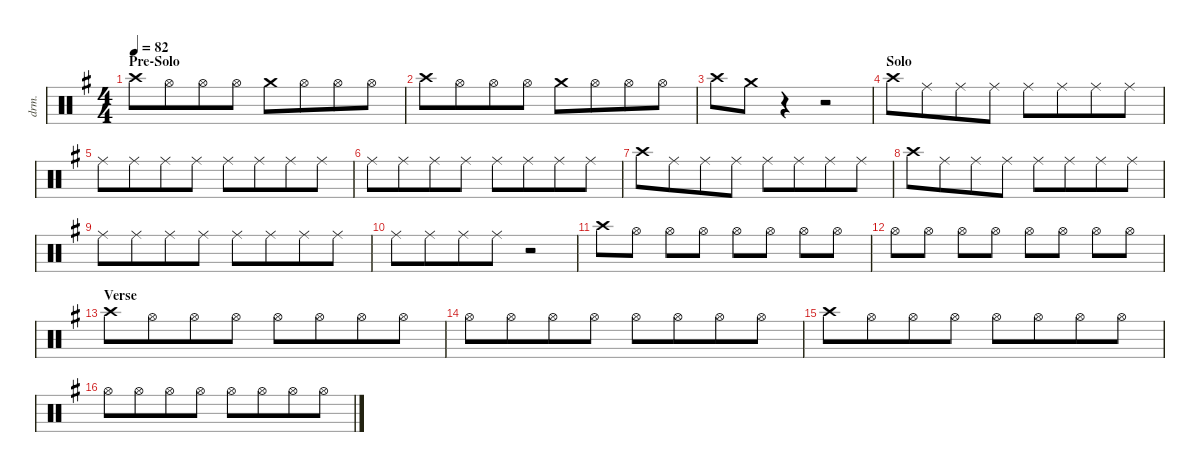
\defaultSystemsLayout 2
\hideDynamics
\bracketExtendMode nobrackets
\otherSystemsTrackNameOrientation horizontal
\track ("Drums (Cymbals)" "drm.") {instrument percussion}
\staff {score}
\articulation defaults
\ts (4 4)
\beaming (8 4 4)
\section ("" "Pre-Solo")
\tempo 82
\clef neutral
\ks g "Crash high (hit)".8{dy f} "Hi-Hat (open)".8 "Hi-Hat (open)".8 "Hi-Hat (open)".8 "Crash medium (hit)".8 "Hi-Hat (open)".8 "Hi-Hat (open)".8 "Hi-Hat (open)".8
|
"Crash high (hit)".8 "Hi-Hat (open)".8 "Hi-Hat (open)".8 "Hi-Hat (open)".8 "Crash medium (hit)".8 "Hi-Hat (open)".8 "Hi-Hat (open)".8 "Hi-Hat (open)".8 |
"Crash high (hit)".8 "Crash medium (hit)".8 r.4 r.2 |
\section ("" "Solo")
"Crash high (hit)".8 "Ride (middle)".8 "Ride (middle)".8 "Ride (middle)".8 "Ride (middle)".8 "Ride (middle)".8 "Ride (middle)".8 "Ride (middle)".8 |
"Ride (middle)".8 "Ride (middle)".8 "Ride (middle)".8 "Ride (middle)".8 "Ride (middle)".8 "Ride (middle)".8 "Ride (middle)".8 "Ride (middle)".8 |
"Ride (middle)".8 "Ride (middle)".8 "Ride (middle)".8 "Ride (middle)".8 "Ride (middle)".8 "Ride (middle)".8 "Ride (middle)".8 "Ride (middle)".8 |
"Crash high (hit)".8 "Ride (middle)".8 "Ride (middle)".8 "Ride (middle)".8 "Ride (middle)".8 "Ride (middle)".8 "Ride (middle)".8 "Ride (middle)".8 |
"Crash high (hit)".8 "Ride (middle)".8 "Ride (middle)".8 "Ride (middle)".8 "Ride (middle)".8 "Ride (middle)".8 "Ride (middle)".8 "Ride (middle)".8 |
"Ride (middle)".8 "Ride (middle)".8 "Ride (middle)".8 "Ride (middle)".8 "Ride (middle)".8 "Ride (middle)".8 "Ride (middle)".8 "Ride (middle)".8 |
"Ride (middle)".8 "Ride (middle)".8 "Ride (middle)".8 "Ride (middle)".8 r.2 |
\beaming (8 2 2 2 2)
"Crash high (hit)".8 "Hi-Hat (open)".8 "Hi-Hat (open)".8 "Hi-Hat (open)".8 "Hi-Hat (open)".8 "Hi-Hat (open)".8 "Hi-Hat (open)".8 "Hi-Hat (open)".8 |
"Hi-Hat (open)".8 "Hi-Hat (open)".8 "Hi-Hat (open)".8 "Hi-Hat (open)".8 "Hi-Hat (open)".8 "Hi-Hat (open)".8 "Hi-Hat (open)".8 "Hi-Hat (open)".8 |
\beaming (8 4 4)
\section ("" "Verse")
"Crash high (hit)".8 "Hi-Hat (open)".8 "Hi-Hat (open)".8 "Hi-Hat (open)".8 "Hi-Hat (open)".8 "Hi-Hat (open)".8 "Hi-Hat (open)".8 "Hi-Hat (open)".8 |
"Hi-Hat (open)".8 "Hi-Hat (open)".8 "Hi-Hat (open)".8 "Hi-Hat (open)".8 "Hi-Hat (open)".8 "Hi-Hat (open)".8 "Hi-Hat (open)".8 "Hi-Hat (open)".8 |
"Crash high (hit)".8 "Hi-Hat (open)".8 "Hi-Hat (open)".8 "Hi-Hat (open)".8 "Hi-Hat (open)".8 "Hi-Hat (open)".8 "Hi-Hat (open)".8 "Hi-Hat (open)".8 |
"Hi-Hat (open)".8 "Hi-Hat (open)".8 "Hi-Hat (open)".8 "Hi-Hat (open)".8 "Hi-Hat (open)".8 "Hi-Hat (open)".8 "Hi-Hat (open)".8 "Hi-Hat (open)".8
